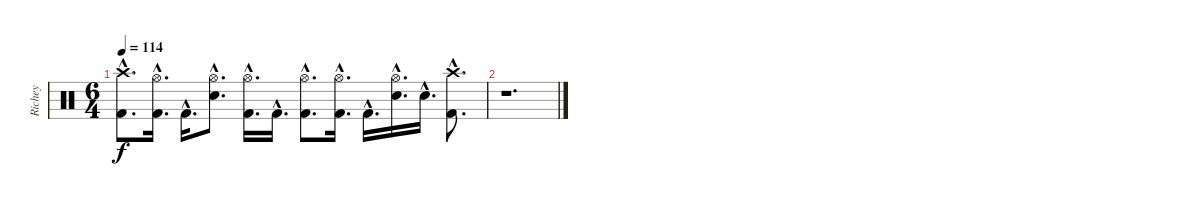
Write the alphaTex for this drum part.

\track ("Richey" "Richey") {instrument percussion}
\staff {score}
\articulation defaults
\ts (6 4)
\tempo 114
\clef neutral
\ks c
("Crash high (hit)"{hac} "Kick (hit) 2"{hac}).8{d dy f volume 0} ("Hi-Hat (open)"{hac} "Kick (hit) 2"{hac}).16{d} "Kick (hit) 2"{hac}.16{d} ("Hi-Hat (open)"{hac} "Snare (hit) 2"{hac}).8{d} ("Hi-Hat (open)"{hac} "Kick (hit) 2"{hac}).16{d} "Kick (hit) 2"{hac}.16{d} ("Hi-Hat (open)"{hac} "Kick (hit) 2"{hac}).8{d} ("Hi-Hat (open)"{hac} "Kick (hit) 2"{hac}).16{d} "Kick (hit) 2"{hac}.16{d} ("Hi-Hat (open)"{hac} "Snare (hit) 2"{hac}).16{d} "Snare (hit) 2"{hac}.16{d} ("Crash high (hit)"{hac} "Kick (hit) 2"{hac}).8{d} |
r.1{d}
